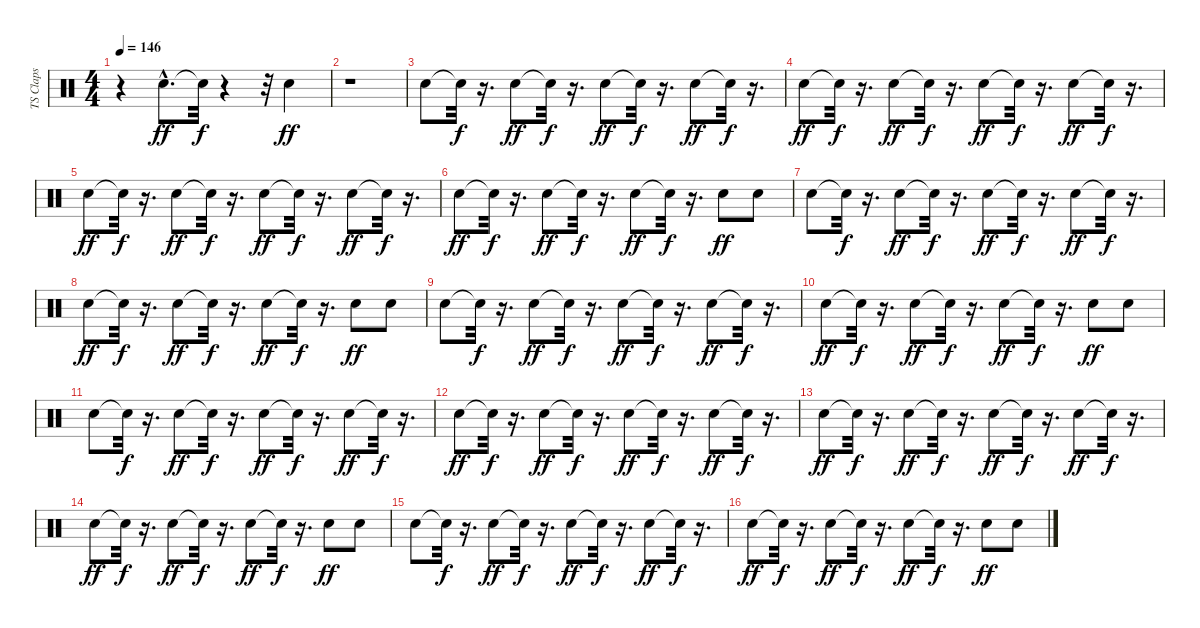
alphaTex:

\track ("TS Claps" "TS Claps") {instrument percussion}
\staff {score}
\articulation defaults
\ts (4 4)
\tempo 146
\clef neutral
\ks c
r.4{dy f} "Hand Clap (hit)"{hac}.8{d dy ff} "Snare (hit)"{t}.32{dy f} r.4 r.32 "Hand Clap (hit)".4{dy ff} |
r.1 |
"Hand Clap (hit)".8 "Snare (hit)"{t}.32{dy f} r.16{d} "Hand Clap (hit)".8{dy ff} "Snare (hit)"{t}.32{dy f} r.16{d} "Hand Clap (hit)".8{dy ff} "Snare (hit)"{t}.32{dy f} r.16{d} "Hand Clap (hit)".8{dy ff} "Snare (hit)"{t}.32{dy f} r.16{d} |
"Hand Clap (hit)".8{dy ff} "Snare (hit)"{t}.32{dy f} r.16{d} "Hand Clap (hit)".8{dy ff} "Snare (hit)"{t}.32{dy f} r.16{d} "Hand Clap (hit)".8{dy ff} "Snare (hit)"{t}.32{dy f} r.16{d} "Hand Clap (hit)".8{dy ff} "Snare (hit)"{t}.32{dy f} r.16{d} |
"Hand Clap (hit)".8{dy ff} "Snare (hit)"{t}.32{dy f} r.16{d} "Hand Clap (hit)".8{dy ff} "Snare (hit)"{t}.32{dy f} r.16{d} "Hand Clap (hit)".8{dy ff} "Snare (hit)"{t}.32{dy f} r.16{d} "Hand Clap (hit)".8{dy ff} "Snare (hit)"{t}.32{dy f} r.16{d} |
"Hand Clap (hit)".8{dy ff} "Snare (hit)"{t}.32{dy f} r.16{d} "Hand Clap (hit)".8{dy ff} "Snare (hit)"{t}.32{dy f} r.16{d} "Hand Clap (hit)".8{dy ff} "Snare (hit)"{t}.32{dy f} r.16{d} "Hand Clap (hit)".8{dy ff} "Hand Clap (hit)".8 |
"Hand Clap (hit)".8 "Snare (hit)"{t}.32{dy f} r.16{d} "Hand Clap (hit)".8{dy ff} "Snare (hit)"{t}.32{dy f} r.16{d} "Hand Clap (hit)".8{dy ff} "Snare (hit)"{t}.32{dy f} r.16{d} "Hand Clap (hit)".8{dy ff} "Snare (hit)"{t}.32{dy f} r.16{d} |
"Hand Clap (hit)".8{dy ff} "Snare (hit)"{t}.32{dy f} r.16{d} "Hand Clap (hit)".8{dy ff} "Snare (hit)"{t}.32{dy f} r.16{d} "Hand Clap (hit)".8{dy ff} "Snare (hit)"{t}.32{dy f} r.16{d} "Hand Clap (hit)".8{dy ff} "Hand Clap (hit)".8 |
"Hand Clap (hit)".8 "Snare (hit)"{t}.32{dy f} r.16{d} "Hand Clap (hit)".8{dy ff} "Snare (hit)"{t}.32{dy f} r.16{d} "Hand Clap (hit)".8{dy ff} "Snare (hit)"{t}.32{dy f} r.16{d} "Hand Clap (hit)".8{dy ff} "Snare (hit)"{t}.32{dy f} r.16{d} |
"Hand Clap (hit)".8{dy ff} "Snare (hit)"{t}.32{dy f} r.16{d} "Hand Clap (hit)".8{dy ff} "Snare (hit)"{t}.32{dy f} r.16{d} "Hand Clap (hit)".8{dy ff} "Snare (hit)"{t}.32{dy f} r.16{d} "Hand Clap (hit)".8{dy ff} "Hand Clap (hit)".8 |
"Hand Clap (hit)".8 "Snare (hit)"{t}.32{dy f} r.16{d} "Hand Clap (hit)".8{dy ff} "Snare (hit)"{t}.32{dy f} r.16{d} "Hand Clap (hit)".8{dy ff} "Snare (hit)"{t}.32{dy f} r.16{d} "Hand Clap (hit)".8{dy ff} "Snare (hit)"{t}.32{dy f} r.16{d} |
"Hand Clap (hit)".8{dy ff} "Snare (hit)"{t}.32{dy f} r.16{d} "Hand Clap (hit)".8{dy ff} "Snare (hit)"{t}.32{dy f} r.16{d} "Hand Clap (hit)".8{dy ff} "Snare (hit)"{t}.32{dy f} r.16{d} "Hand Clap (hit)".8{dy ff} "Snare (hit)"{t}.32{dy f} r.16{d} |
"Hand Clap (hit)".8{dy ff} "Snare (hit)"{t}.32{dy f} r.16{d} "Hand Clap (hit)".8{dy ff} "Snare (hit)"{t}.32{dy f} r.16{d} "Hand Clap (hit)".8{dy ff} "Snare (hit)"{t}.32{dy f} r.16{d} "Hand Clap (hit)".8{dy ff} "Snare (hit)"{t}.32{dy f} r.16{d} |
"Hand Clap (hit)".8{dy ff} "Snare (hit)"{t}.32{dy f} r.16{d} "Hand Clap (hit)".8{dy ff} "Snare (hit)"{t}.32{dy f} r.16{d} "Hand Clap (hit)".8{dy ff} "Snare (hit)"{t}.32{dy f} r.16{d} "Hand Clap (hit)".8{dy ff} "Hand Clap (hit)".8 |
"Hand Clap (hit)".8 "Snare (hit)"{t}.32{dy f} r.16{d} "Hand Clap (hit)".8{dy ff} "Snare (hit)"{t}.32{dy f} r.16{d} "Hand Clap (hit)".8{dy ff} "Snare (hit)"{t}.32{dy f} r.16{d} "Hand Clap (hit)".8{dy ff} "Snare (hit)"{t}.32{dy f} r.16{d} |
"Hand Clap (hit)".8{dy ff} "Snare (hit)"{t}.32{dy f} r.16{d} "Hand Clap (hit)".8{dy ff} "Snare (hit)"{t}.32{dy f} r.16{d} "Hand Clap (hit)".8{dy ff} "Snare (hit)"{t}.32{dy f} r.16{d} "Hand Clap (hit)".8{dy ff} "Hand Clap (hit)".8
